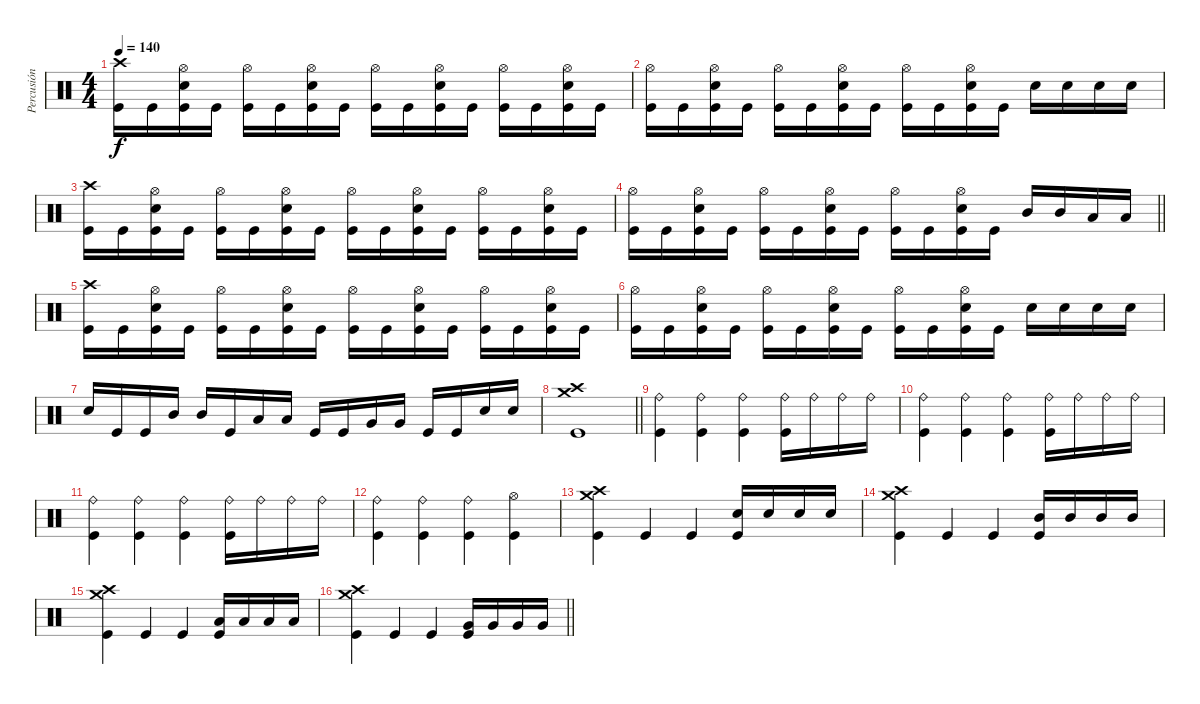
\track ("Percusión" "Percusión") {instrument percussion}
\staff {score}
\articulation defaults
\ts (4 4)
\tempo 140
\clef neutral
\ks c
("Kick (hit)" "Crash high (hit)").16{dy f} "Kick (hit)".16 ("Snare (hit) 2" "Kick (hit)" "Hi-Hat (open)").16 "Kick (hit)".16 ("Kick (hit)" "Hi-Hat (open)").16 "Kick (hit)".16 ("Kick (hit)" "Snare (hit) 2" "Hi-Hat (open)").16 "Kick (hit)".16 ("Kick (hit)" "Hi-Hat (open)").16 "Kick (hit)".16 ("Kick (hit)" "Snare (hit) 2" "Hi-Hat (open)").16 "Kick (hit)".16 ("Kick (hit)" "Hi-Hat (open)").16 "Kick (hit)".16 ("Kick (hit)" "Snare (hit) 2" "Hi-Hat (open)").16 "Kick (hit)".16 |
("Kick (hit)" "Hi-Hat (open)").16 "Kick (hit)".16 ("Snare (hit) 2" "Kick (hit)" "Hi-Hat (open)").16 "Kick (hit)".16 ("Kick (hit)" "Hi-Hat (open)").16 "Kick (hit)".16 ("Kick (hit)" "Snare (hit) 2" "Hi-Hat (open)").16 "Kick (hit)".16 ("Kick (hit)" "Hi-Hat (open)").16 "Kick (hit)".16 ("Kick (hit)" "Snare (hit) 2" "Hi-Hat (open)").16 "Kick (hit)".16 "Snare (hit) 2".16 "Snare (hit) 2".16 "Snare (hit) 2".16 "Snare (hit) 2".16 |
("Kick (hit)" "Crash high (hit)").16 "Kick (hit)".16 ("Snare (hit) 2" "Kick (hit)" "Hi-Hat (open)").16 "Kick (hit)".16 ("Kick (hit)" "Hi-Hat (open)").16 "Kick (hit)".16 ("Kick (hit)" "Snare (hit) 2" "Hi-Hat (open)").16 "Kick (hit)".16 ("Kick (hit)" "Hi-Hat (open)").16 "Kick (hit)".16 ("Kick (hit)" "Snare (hit) 2" "Hi-Hat (open)").16 "Kick (hit)".16 ("Kick (hit)" "Hi-Hat (open)").16 "Kick (hit)".16 ("Kick (hit)" "Snare (hit) 2" "Hi-Hat (open)").16 "Kick (hit)".16 |
\barLineRight lightlight
("Kick (hit)" "Hi-Hat (open)").16 "Kick (hit)".16 ("Snare (hit) 2" "Kick (hit)" "Hi-Hat (open)").16 "Kick (hit)".16 ("Kick (hit)" "Hi-Hat (open)").16 "Kick (hit)".16 ("Kick (hit)" "Snare (hit) 2" "Hi-Hat (open)").16 "Kick (hit)".16 ("Kick (hit)" "Hi-Hat (open)").16 "Kick (hit)".16 ("Kick (hit)" "Snare (hit) 2" "Hi-Hat (open)").16 "Kick (hit)".16 "Mid Tom (hit)".16 "Mid Tom (hit)".16 "Low Tom (hit)".16 "Low Tom (hit)".16 |
("Kick (hit)" "Crash high (hit)").16 "Kick (hit)".16 ("Snare (hit) 2" "Kick (hit)" "Hi-Hat (open)").16 "Kick (hit)".16 ("Kick (hit)" "Hi-Hat (open)").16 "Kick (hit)".16 ("Kick (hit)" "Snare (hit) 2" "Hi-Hat (open)").16 "Kick (hit)".16 ("Kick (hit)" "Hi-Hat (open)").16 "Kick (hit)".16 ("Kick (hit)" "Snare (hit) 2" "Hi-Hat (open)").16 "Kick (hit)".16 ("Kick (hit)" "Hi-Hat (open)").16 "Kick (hit)".16 ("Kick (hit)" "Snare (hit) 2" "Hi-Hat (open)").16 "Kick (hit)".16 |
("Kick (hit)" "Hi-Hat (open)").16 "Kick (hit)".16 ("Snare (hit) 2" "Kick (hit)" "Hi-Hat (open)").16 "Kick (hit)".16 ("Kick (hit)" "Hi-Hat (open)").16 "Kick (hit)".16 ("Kick (hit)" "Snare (hit) 2" "Hi-Hat (open)").16 "Kick (hit)".16 ("Kick (hit)" "Hi-Hat (open)").16 "Kick (hit)".16 ("Kick (hit)" "Snare (hit) 2" "Hi-Hat (open)").16 "Kick (hit)".16 "Snare (hit) 2".16 "Snare (hit) 2".16 "Snare (hit) 2".16 "Snare (hit) 2".16 |
"Snare (hit) 2".16 "Kick (hit)".16 "Kick (hit)".16 "Mid Tom (hit)".16 "Mid Tom (hit)".16 "Kick (hit)".16 "Low Tom (hit)".16 "Low Tom (hit)".16 "Kick (hit)".16 "Kick (hit)".16 "Very Low Tom (hit)".16 "Very Low Tom (hit)".16 "Kick (hit)".16 "Kick (hit)".16 "Snare (hit) 2".16 "Snare (hit) 2".16 |
\barLineRight lightlight
("Kick (hit)" "Crash high (hit)" "Crash medium (hit)").1 |
("Kick (hit)" "Ride (bell)").4 ("Kick (hit)" "Ride (bell)").4 ("Kick (hit)" "Ride (bell)").4 ("Ride (bell)" "Kick (hit)").16 "Ride (bell)".16 "Ride (bell)".16 "Ride (bell)".16 |
("Kick (hit)" "Ride (bell)").4 ("Kick (hit)" "Ride (bell)").4 ("Kick (hit)" "Ride (bell)").4 ("Ride (bell)" "Kick (hit)").16 "Ride (bell)".16 "Ride (bell)".16 "Ride (bell)".16 |
("Kick (hit)" "Ride (bell)").4 ("Kick (hit)" "Ride (bell)").4 ("Kick (hit)" "Ride (bell)").4 ("Ride (bell)" "Kick (hit)").16 "Ride (bell)".16 "Ride (bell)".16 "Ride (bell)".16 |
("Kick (hit)" "Ride (bell)").4 ("Kick (hit)" "Ride (bell)").4 ("Kick (hit)" "Ride (bell)").4 ("Kick (hit)" "Hi-Hat (open)").4 |
("Kick (hit)" "Crash high (hit)" "Crash medium (hit)").4 "Kick (hit)".4 "Kick (hit)".4 ("Snare (hit) 2" "Kick (hit)").16 "Snare (hit) 2".16 "Snare (hit) 2".16 "Snare (hit) 2".16 |
("Kick (hit)" "Crash high (hit)" "Crash medium (hit)").4 "Kick (hit)".4 "Kick (hit)".4 ("Mid Tom (hit)" "Kick (hit)").16 "Mid Tom (hit)".16 "Mid Tom (hit)".16 "Mid Tom (hit)".16 |
("Kick (hit)" "Crash high (hit)" "Crash medium (hit)").4 "Kick (hit)".4 "Kick (hit)".4 ("Low Tom (hit)" "Kick (hit)").16 "Low Tom (hit)".16 "Low Tom (hit)".16 "Low Tom (hit)".16 |
\barLineRight lightlight
("Kick (hit)" "Crash high (hit)" "Crash medium (hit)").4 "Kick (hit)".4 "Kick (hit)".4 ("Kick (hit)" "Very Low Tom (hit)").16 "Very Low Tom (hit)".16 "Very Low Tom (hit)".16 "Very Low Tom (hit)".16
